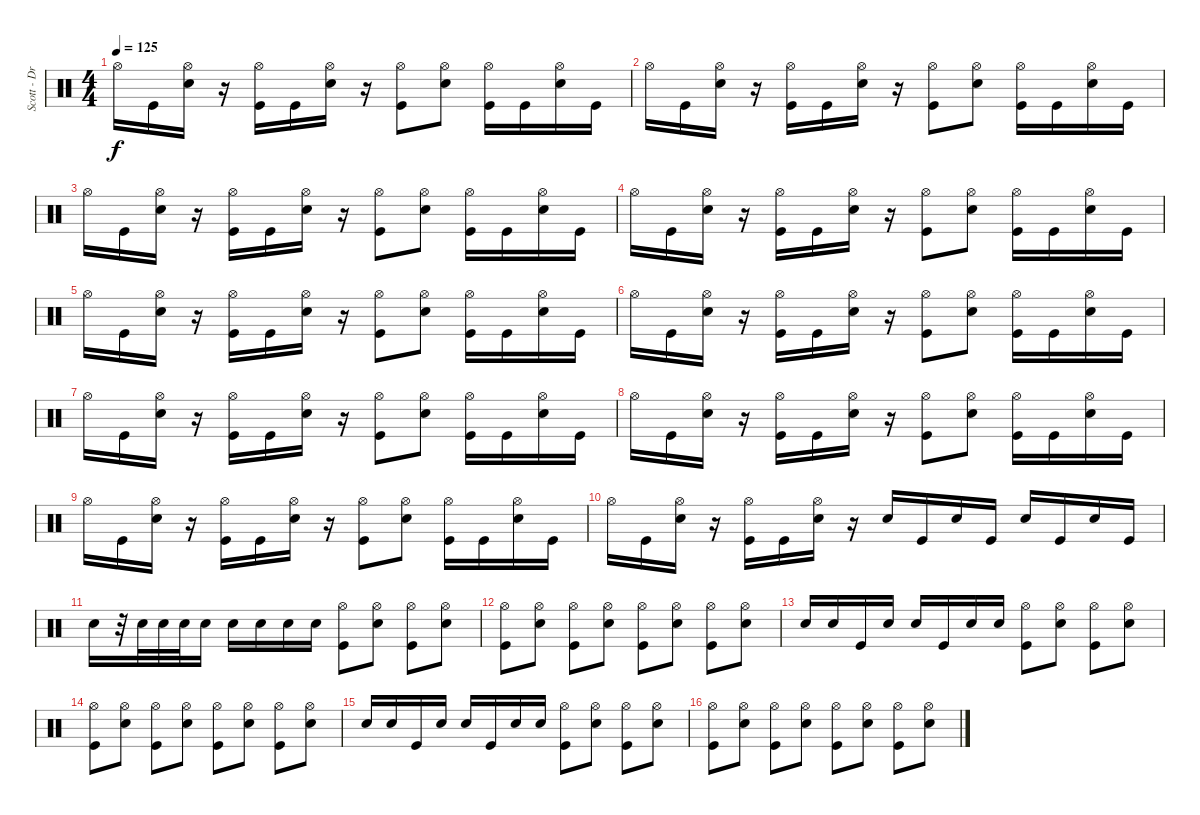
\track ("Scott - Drums" "Scott - Dr") {instrument percussion}
\staff {score}
\articulation defaults
\ts (4 4)
\tempo 125
\clef neutral
\ks c "Hi-Hat (open)".16{dy f} "Kick (hit)".16
("Hi-Hat (open)" "Snare (hit) 2").16 r.16 ("Hi-Hat (open)" "Kick (hit)").16 "Kick (hit)".16 ("Hi-Hat (open)" "Snare (hit) 2").16 r.16 ("Hi-Hat (open)" "Kick (hit)").8 ("Hi-Hat (open)" "Snare (hit) 2").8 ("Hi-Hat (open)" "Kick (hit)").16 "Kick (hit)".16 ("Hi-Hat (open)" "Snare (hit) 2").16 "Kick (hit)".16 |
"Hi-Hat (open)".16 "Kick (hit)".16 ("Hi-Hat (open)" "Snare (hit) 2").16 r.16 ("Hi-Hat (open)" "Kick (hit)").16 "Kick (hit)".16 ("Hi-Hat (open)" "Snare (hit) 2").16 r.16 ("Hi-Hat (open)" "Kick (hit)").8 ("Hi-Hat (open)" "Snare (hit) 2").8 ("Hi-Hat (open)" "Kick (hit)").16 "Kick (hit)".16 ("Hi-Hat (open)" "Snare (hit) 2").16 "Kick (hit)".16 |
"Hi-Hat (open)".16 "Kick (hit)".16 ("Hi-Hat (open)" "Snare (hit) 2").16 r.16 ("Hi-Hat (open)" "Kick (hit)").16 "Kick (hit)".16 ("Hi-Hat (open)" "Snare (hit) 2").16 r.16 ("Hi-Hat (open)" "Kick (hit)").8 ("Hi-Hat (open)" "Snare (hit) 2").8 ("Hi-Hat (open)" "Kick (hit)").16 "Kick (hit)".16 ("Hi-Hat (open)" "Snare (hit) 2").16 "Kick (hit)".16 |
"Hi-Hat (open)".16 "Kick (hit)".16 ("Hi-Hat (open)" "Snare (hit) 2").16 r.16 ("Hi-Hat (open)" "Kick (hit)").16 "Kick (hit)".16 ("Hi-Hat (open)" "Snare (hit) 2").16 r.16 ("Hi-Hat (open)" "Kick (hit)").8 ("Hi-Hat (open)" "Snare (hit) 2").8 ("Hi-Hat (open)" "Kick (hit)").16 "Kick (hit)".16 ("Hi-Hat (open)" "Snare (hit) 2").16 "Kick (hit)".16 |
"Hi-Hat (open)".16 "Kick (hit)".16 ("Hi-Hat (open)" "Snare (hit) 2").16 r.16 ("Hi-Hat (open)" "Kick (hit)").16 "Kick (hit)".16 ("Hi-Hat (open)" "Snare (hit) 2").16 r.16 ("Hi-Hat (open)" "Kick (hit)").8 ("Hi-Hat (open)" "Snare (hit) 2").8 ("Hi-Hat (open)" "Kick (hit)").16 "Kick (hit)".16 ("Hi-Hat (open)" "Snare (hit) 2").16 "Kick (hit)".16 |
"Hi-Hat (open)".16 "Kick (hit)".16 ("Hi-Hat (open)" "Snare (hit) 2").16 r.16 ("Hi-Hat (open)" "Kick (hit)").16 "Kick (hit)".16 ("Hi-Hat (open)" "Snare (hit) 2").16 r.16 ("Hi-Hat (open)" "Kick (hit)").8 ("Hi-Hat (open)" "Snare (hit) 2").8 ("Hi-Hat (open)" "Kick (hit)").16 "Kick (hit)".16 ("Hi-Hat (open)" "Snare (hit) 2").16 "Kick (hit)".16 |
"Hi-Hat (open)".16 "Kick (hit)".16 ("Hi-Hat (open)" "Snare (hit) 2").16 r.16 ("Hi-Hat (open)" "Kick (hit)").16 "Kick (hit)".16 ("Hi-Hat (open)" "Snare (hit) 2").16 r.16 ("Hi-Hat (open)" "Kick (hit)").8 ("Hi-Hat (open)" "Snare (hit) 2").8 ("Hi-Hat (open)" "Kick (hit)").16 "Kick (hit)".16 ("Hi-Hat (open)" "Snare (hit) 2").16 "Kick (hit)".16 |
"Hi-Hat (open)".16 "Kick (hit)".16 ("Hi-Hat (open)" "Snare (hit) 2").16 r.16 ("Hi-Hat (open)" "Kick (hit)").16 "Kick (hit)".16 ("Hi-Hat (open)" "Snare (hit) 2").16 r.16 ("Hi-Hat (open)" "Kick (hit)").8 ("Hi-Hat (open)" "Snare (hit) 2").8 ("Hi-Hat (open)" "Kick (hit)").16 "Kick (hit)".16 ("Hi-Hat (open)" "Snare (hit) 2").16 "Kick (hit)".16 |
"Hi-Hat (open)".16 "Kick (hit)".16 ("Hi-Hat (open)" "Snare (hit) 2").16 r.16 ("Hi-Hat (open)" "Kick (hit)").16 "Kick (hit)".16 ("Hi-Hat (open)" "Snare (hit) 2").16 r.16 ("Hi-Hat (open)" "Kick (hit)").8 ("Hi-Hat (open)" "Snare (hit) 2").8 ("Hi-Hat (open)" "Kick (hit)").16 "Kick (hit)".16 ("Hi-Hat (open)" "Snare (hit) 2").16 "Kick (hit)".16 |
"Hi-Hat (open)".16 "Kick (hit)".16 ("Hi-Hat (open)" "Snare (hit) 2").16 r.16 ("Hi-Hat (open)" "Kick (hit)").16 "Kick (hit)".16 ("Hi-Hat (open)" "Snare (hit) 2").16 r.16 "Snare (hit) 2".16 "Kick (hit)".16 "Snare (hit) 2".16 "Kick (hit)".16 "Snare (hit) 2".16 "Kick (hit)".16 "Snare (hit) 2".16 "Kick (hit)".16 |
"Snare (hit) 2".16 r.32 "Snare (hit) 2".32 "Snare (hit) 2".32 "Snare (hit) 2".32 "Snare (hit) 2".16 "Snare (hit) 2".16 "Snare (hit) 2".16 "Snare (hit) 2".16 "Snare (hit) 2".16 ("Hi-Hat (open)" "Kick (hit)").8 ("Hi-Hat (open)" "Snare (hit) 2").8 ("Hi-Hat (open)" "Kick (hit)").8 ("Hi-Hat (open)" "Snare (hit) 2").8 |
("Hi-Hat (open)" "Kick (hit)").8 ("Hi-Hat (open)" "Snare (hit) 2").8 ("Hi-Hat (open)" "Kick (hit)").8 ("Hi-Hat (open)" "Snare (hit) 2").8 ("Hi-Hat (open)" "Kick (hit)").8 ("Hi-Hat (open)" "Snare (hit) 2").8 ("Hi-Hat (open)" "Kick (hit)").8 ("Hi-Hat (open)" "Snare (hit) 2").8 |
"Snare (hit) 2".16 "Snare (hit) 2".16 "Kick (hit)".16 "Snare (hit) 2".16 "Snare (hit) 2".16 "Kick (hit)".16 "Snare (hit) 2".16 "Snare (hit) 2".16 ("Hi-Hat (open)" "Kick (hit)").8 ("Hi-Hat (open)" "Snare (hit) 2").8 ("Hi-Hat (open)" "Kick (hit)").8 ("Hi-Hat (open)" "Snare (hit) 2").8 |
("Hi-Hat (open)" "Kick (hit)").8 ("Hi-Hat (open)" "Snare (hit) 2").8 ("Hi-Hat (open)" "Kick (hit)").8 ("Hi-Hat (open)" "Snare (hit) 2").8 ("Hi-Hat (open)" "Kick (hit)").8 ("Hi-Hat (open)" "Snare (hit) 2").8 ("Hi-Hat (open)" "Kick (hit)").8 ("Hi-Hat (open)" "Snare (hit) 2").8 |
"Snare (hit) 2".16 "Snare (hit) 2".16 "Kick (hit)".16 "Snare (hit) 2".16 "Snare (hit) 2".16 "Kick (hit)".16 "Snare (hit) 2".16 "Snare (hit) 2".16 ("Hi-Hat (open)" "Kick (hit)").8 ("Hi-Hat (open)" "Snare (hit) 2").8 ("Hi-Hat (open)" "Kick (hit)").8 ("Hi-Hat (open)" "Snare (hit) 2").8 |
("Hi-Hat (open)" "Kick (hit)").8 ("Hi-Hat (open)" "Snare (hit) 2").8 ("Hi-Hat (open)" "Kick (hit)").8 ("Hi-Hat (open)" "Snare (hit) 2").8 ("Hi-Hat (open)" "Kick (hit)").8 ("Hi-Hat (open)" "Snare (hit) 2").8 ("Hi-Hat (open)" "Kick (hit)").8 ("Hi-Hat (open)" "Snare (hit) 2").8
